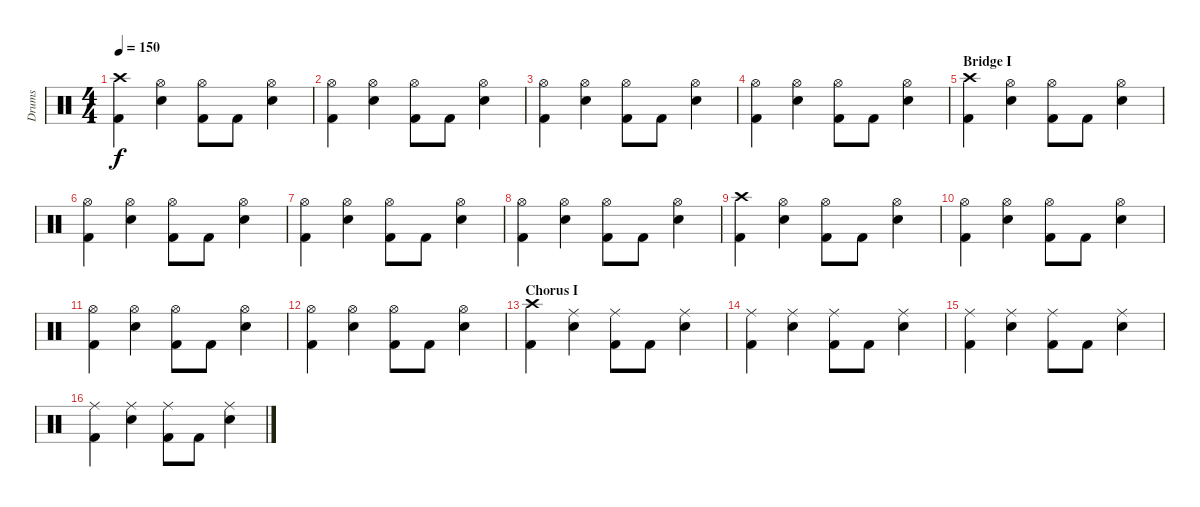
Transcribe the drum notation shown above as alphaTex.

\track ("Drums" "Drums") {instrument percussion}
\staff {score}
\articulation defaults
\ts (4 4)
\tempo 150
\clef neutral
\ks c
("Crash high (hit)" "Kick (hit) 2").4{dy f} ("Hi-Hat (open)" "Electric Snare (hit)").4 ("Hi-Hat (open)" "Kick (hit) 2").8 "Kick (hit) 2".8 ("Hi-Hat (open)" "Electric Snare (hit)").4 |
("Hi-Hat (open)" "Kick (hit) 2").4 ("Hi-Hat (open)" "Electric Snare (hit)").4 ("Hi-Hat (open)" "Kick (hit) 2").8 "Kick (hit) 2".8 ("Hi-Hat (open)" "Electric Snare (hit)").4 |
("Hi-Hat (open)" "Kick (hit) 2").4 ("Hi-Hat (open)" "Electric Snare (hit)").4 ("Hi-Hat (open)" "Kick (hit) 2").8 "Kick (hit) 2".8 ("Hi-Hat (open)" "Electric Snare (hit)").4 |
("Hi-Hat (open)" "Kick (hit) 2").4 ("Hi-Hat (open)" "Electric Snare (hit)").4 ("Hi-Hat (open)" "Kick (hit) 2").8 "Kick (hit) 2".8 ("Hi-Hat (open)" "Electric Snare (hit)").4 |
\section ("" "Bridge I")
("Crash high (hit)" "Kick (hit) 2").4 ("Hi-Hat (open)" "Electric Snare (hit)").4 ("Hi-Hat (open)" "Kick (hit) 2").8 "Kick (hit) 2".8 ("Hi-Hat (open)" "Electric Snare (hit)").4 |
("Hi-Hat (open)" "Kick (hit) 2").4 ("Hi-Hat (open)" "Electric Snare (hit)").4 ("Hi-Hat (open)" "Kick (hit) 2").8 "Kick (hit) 2".8 ("Hi-Hat (open)" "Electric Snare (hit)").4 |
("Hi-Hat (open)" "Kick (hit) 2").4 ("Hi-Hat (open)" "Electric Snare (hit)").4 ("Hi-Hat (open)" "Kick (hit) 2").8 "Kick (hit) 2".8 ("Hi-Hat (open)" "Electric Snare (hit)").4 |
("Hi-Hat (open)" "Kick (hit) 2").4 ("Hi-Hat (open)" "Electric Snare (hit)").4 ("Hi-Hat (open)" "Kick (hit) 2").8 "Kick (hit) 2".8 ("Hi-Hat (open)" "Electric Snare (hit)").4 |
("Crash high (hit)" "Kick (hit) 2").4 ("Hi-Hat (open)" "Electric Snare (hit)").4 ("Hi-Hat (open)" "Kick (hit) 2").8 "Kick (hit) 2".8 ("Hi-Hat (open)" "Electric Snare (hit)").4 |
("Hi-Hat (open)" "Kick (hit) 2").4 ("Hi-Hat (open)" "Electric Snare (hit)").4 ("Hi-Hat (open)" "Kick (hit) 2").8 "Kick (hit) 2".8 ("Hi-Hat (open)" "Electric Snare (hit)").4 |
("Hi-Hat (open)" "Kick (hit) 2").4 ("Hi-Hat (open)" "Electric Snare (hit)").4 ("Hi-Hat (open)" "Kick (hit) 2").8 "Kick (hit) 2".8 ("Hi-Hat (open)" "Electric Snare (hit)").4 |
("Hi-Hat (open)" "Kick (hit) 2").4 ("Hi-Hat (open)" "Electric Snare (hit)").4 ("Hi-Hat (open)" "Kick (hit) 2").8 "Kick (hit) 2".8 ("Hi-Hat (open)" "Electric Snare (hit)").4 |
\section ("" "Chorus I")
("Crash high (hit)" "Kick (hit) 2").4 ("Ride (middle)" "Electric Snare (hit)").4 ("Ride (middle)" "Kick (hit) 2").8 "Kick (hit) 2".8 ("Ride (middle)" "Electric Snare (hit)").4 |
("Ride (middle)" "Kick (hit) 2").4 ("Ride (middle)" "Electric Snare (hit)").4 ("Ride (middle)" "Kick (hit) 2").8 "Kick (hit) 2".8 ("Ride (middle)" "Electric Snare (hit)").4 |
("Ride (middle)" "Kick (hit) 2").4 ("Ride (middle)" "Electric Snare (hit)").4 ("Ride (middle)" "Kick (hit) 2").8 "Kick (hit) 2".8 ("Ride (middle)" "Electric Snare (hit)").4 |
("Ride (middle)" "Kick (hit) 2").4 ("Ride (middle)" "Electric Snare (hit)").4 ("Ride (middle)" "Kick (hit) 2").8 "Kick (hit) 2".8 ("Ride (middle)" "Electric Snare (hit)").4
